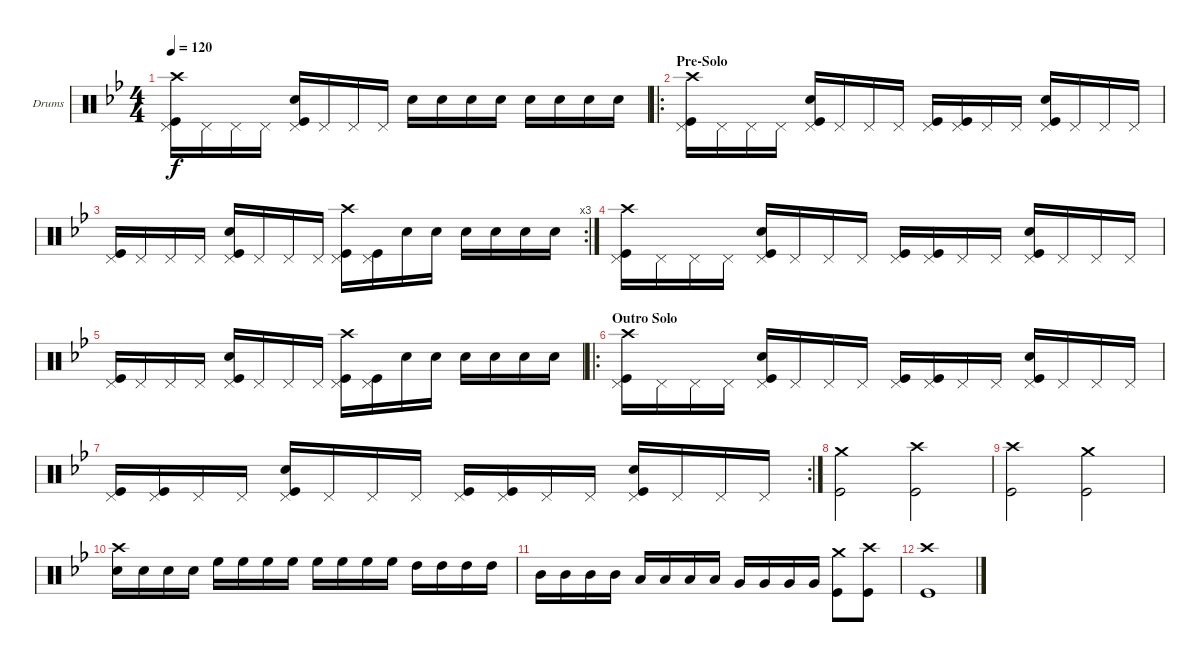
\bracketExtendMode groupsimilarinstruments
\firstSystemTrackNameOrientation horizontal
\otherSystemsTrackNameOrientation horizontal
\track ("Drumkit" "Drums") {instrument percussion}
\staff {score}
\articulation defaults
\ts (4 4)
\tempo 120
\clef neutral
\ks bb
("Crash high (hit)" "Pedal Hi-Hat (hit)" "Kick (hit)").16{dy f} "Pedal Hi-Hat (hit)".16 "Pedal Hi-Hat (hit)".16 "Pedal Hi-Hat (hit)".16 ("Snare (hit) 2" "Pedal Hi-Hat (hit)" "Kick (hit)").16 "Pedal Hi-Hat (hit)".16 "Pedal Hi-Hat (hit)".16 "Pedal Hi-Hat (hit)".16 "Snare (hit) 2".16 "Snare (hit) 2".16 "Snare (hit) 2".16 "Snare (hit) 2".16 "Snare (hit) 2".16 "Snare (hit) 2".16 "Snare (hit) 2".16 "Snare (hit) 2".16 |
\ro
\section ("" "Pre-Solo")
("Crash high (hit)" "Pedal Hi-Hat (hit)" "Kick (hit)").16 "Pedal Hi-Hat (hit)".16 "Pedal Hi-Hat (hit)".16 "Pedal Hi-Hat (hit)".16 ("Snare (hit) 2" "Pedal Hi-Hat (hit)" "Kick (hit)").16 "Pedal Hi-Hat (hit)".16 "Pedal Hi-Hat (hit)".16 "Pedal Hi-Hat (hit)".16 ("Pedal Hi-Hat (hit)" "Kick (hit)").16 ("Pedal Hi-Hat (hit)" "Kick (hit)").16 "Pedal Hi-Hat (hit)".16 "Pedal Hi-Hat (hit)".16 ("Snare (hit) 2" "Pedal Hi-Hat (hit)" "Kick (hit)").16 "Pedal Hi-Hat (hit)".16 "Pedal Hi-Hat (hit)".16 "Pedal Hi-Hat (hit)".16 |
\rc 3
("Pedal Hi-Hat (hit)" "Kick (hit)").16 "Pedal Hi-Hat (hit)".16 "Pedal Hi-Hat (hit)".16 "Pedal Hi-Hat (hit)".16 ("Snare (hit) 2" "Pedal Hi-Hat (hit)" "Kick (hit)").16 "Pedal Hi-Hat (hit)".16 "Pedal Hi-Hat (hit)".16 "Pedal Hi-Hat (hit)".16 ("Crash high (hit)" "Pedal Hi-Hat (hit)" "Kick (hit)").16 ("Pedal Hi-Hat (hit)" "Kick (hit)").16 "Snare (hit) 2".16 "Snare (hit) 2".16 "Snare (hit) 2".16 "Snare (hit) 2".16 "Snare (hit) 2".16 "Snare (hit) 2".16 |
("Crash high (hit)" "Pedal Hi-Hat (hit)" "Kick (hit)").16 "Pedal Hi-Hat (hit)".16 "Pedal Hi-Hat (hit)".16 "Pedal Hi-Hat (hit)".16 ("Snare (hit) 2" "Pedal Hi-Hat (hit)" "Kick (hit)").16 "Pedal Hi-Hat (hit)".16 "Pedal Hi-Hat (hit)".16 "Pedal Hi-Hat (hit)".16 ("Pedal Hi-Hat (hit)" "Kick (hit)").16 ("Pedal Hi-Hat (hit)" "Kick (hit)").16 "Pedal Hi-Hat (hit)".16 "Pedal Hi-Hat (hit)".16 ("Snare (hit) 2" "Pedal Hi-Hat (hit)" "Kick (hit)").16 "Pedal Hi-Hat (hit)".16 "Pedal Hi-Hat (hit)".16 "Pedal Hi-Hat (hit)".16 |
("Pedal Hi-Hat (hit)" "Kick (hit)").16 "Pedal Hi-Hat (hit)".16 "Pedal Hi-Hat (hit)".16 "Pedal Hi-Hat (hit)".16 ("Snare (hit) 2" "Pedal Hi-Hat (hit)" "Kick (hit)").16 "Pedal Hi-Hat (hit)".16 "Pedal Hi-Hat (hit)".16 "Pedal Hi-Hat (hit)".16 ("Crash high (hit)" "Pedal Hi-Hat (hit)" "Kick (hit)").16 ("Pedal Hi-Hat (hit)" "Kick (hit)").16 "Snare (hit) 2".16 "Snare (hit) 2".16 "Snare (hit) 2".16 "Snare (hit) 2".16 "Snare (hit) 2".16 "Snare (hit) 2".16 |
\ro
\section ("" "Outro Solo")
("Crash high (hit)" "Pedal Hi-Hat (hit)" "Kick (hit)").16 "Pedal Hi-Hat (hit)".16 "Pedal Hi-Hat (hit)".16 "Pedal Hi-Hat (hit)".16 ("Snare (hit) 2" "Pedal Hi-Hat (hit)" "Kick (hit)").16 "Pedal Hi-Hat (hit)".16 "Pedal Hi-Hat (hit)".16 "Pedal Hi-Hat (hit)".16 ("Pedal Hi-Hat (hit)" "Kick (hit)").16 ("Pedal Hi-Hat (hit)" "Kick (hit)").16 "Pedal Hi-Hat (hit)".16 "Pedal Hi-Hat (hit)".16 ("Snare (hit) 2" "Pedal Hi-Hat (hit)" "Kick (hit)").16 "Pedal Hi-Hat (hit)".16 "Pedal Hi-Hat (hit)".16 "Pedal Hi-Hat (hit)".16 |
\rc 2
("Pedal Hi-Hat (hit)" "Kick (hit)").16 ("Pedal Hi-Hat (hit)" "Kick (hit)").16 "Pedal Hi-Hat (hit)".16 "Pedal Hi-Hat (hit)".16 ("Snare (hit) 2" "Pedal Hi-Hat (hit)" "Kick (hit)").16 "Pedal Hi-Hat (hit)".16 "Pedal Hi-Hat (hit)".16 "Pedal Hi-Hat (hit)".16 ("Pedal Hi-Hat (hit)" "Kick (hit)").16 ("Pedal Hi-Hat (hit)" "Kick (hit)").16 "Pedal Hi-Hat (hit)".16 "Pedal Hi-Hat (hit)".16 ("Snare (hit) 2" "Pedal Hi-Hat (hit)" "Kick (hit)").16 "Pedal Hi-Hat (hit)".16 "Pedal Hi-Hat (hit)".16 "Pedal Hi-Hat (hit)".16 |
("Crash medium (hit)" "Kick (hit)").2 ("Crash high (hit)" "Kick (hit)").2 |
("Crash high (hit)" "Kick (hit)").2 ("Crash medium (hit)" "Kick (hit)").2 |
("Crash high (hit)" "Snare (hit) 2").16 "Snare (hit) 2".16 "Snare (hit) 2".16 "Snare (hit) 2".16 "High Floor Tom (hit)".16 "High Floor Tom (hit)".16 "High Floor Tom (hit)".16 "High Floor Tom (hit)".16 "High Floor Tom (hit)".16 "High Floor Tom (hit)".16 "High Floor Tom (hit)".16 "High Floor Tom (hit)".16 "High Tom (hit)".16 "High Tom (hit)".16 "High Tom (hit)".16 "High Tom (hit)".16 |
"Mid Tom (hit)".16 "Mid Tom (hit)".16 "Mid Tom (hit)".16 "Mid Tom (hit)".16 "Low Tom (hit)".16 "Low Tom (hit)".16 "Low Tom (hit)".16 "Low Tom (hit)".16 "Very Low Tom (hit)".16 "Very Low Tom (hit)".16 "Very Low Tom (hit)".16 "Very Low Tom (hit)".16 ("Crash medium (hit)" "Kick (hit)").8 ("Crash high (hit)" "Kick (hit)").8 |
("Crash high (hit)" "Kick (hit)").1
